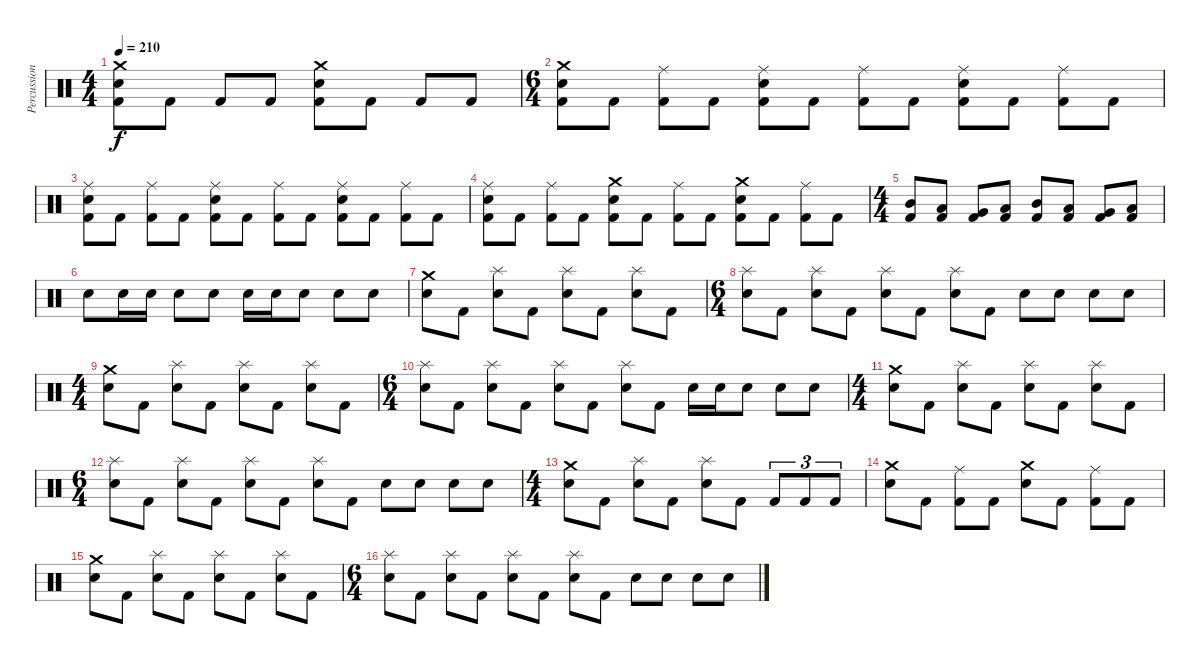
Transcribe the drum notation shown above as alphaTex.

\track ("Percussion" "Percussion") {instrument percussion}
\staff {score}
\articulation defaults
\ts (4 4)
\tempo 210
\clef neutral
\ks c
("Crash medium (hit)" "Electric Snare (hit)" "Kick (hit) 2").8{dy f} "Kick (hit) 2".8 "Kick (hit) 2".8 "Kick (hit) 2".8 ("Crash medium (hit)" "Electric Snare (hit)" "Kick (hit) 2").8 "Kick (hit) 2".8 "Kick (hit) 2".8 "Kick (hit) 2".8 |
\ts (6 4)
("Crash medium (hit)" "Electric Snare (hit)" "Kick (hit) 2").8 "Kick (hit) 2".8 ("Ride (middle)" "Kick (hit) 2").8 "Kick (hit) 2".8 ("Ride (middle)" "Electric Snare (hit)" "Kick (hit) 2").8 "Kick (hit) 2".8 ("Ride (middle)" "Kick (hit) 2").8 "Kick (hit) 2".8 ("Ride (middle)" "Electric Snare (hit)" "Kick (hit) 2").8 "Kick (hit) 2".8 ("Ride (middle)" "Kick (hit) 2").8 "Kick (hit) 2".8 |
("Ride (middle)" "Electric Snare (hit)" "Kick (hit) 2").8 "Kick (hit) 2".8 ("Ride (middle)" "Kick (hit) 2").8 "Kick (hit) 2".8 ("Ride (middle)" "Electric Snare (hit)" "Kick (hit) 2").8 "Kick (hit) 2".8 ("Ride (middle)" "Kick (hit) 2").8 "Kick (hit) 2".8 ("Ride (middle)" "Electric Snare (hit)" "Kick (hit) 2").8 "Kick (hit) 2".8 ("Ride (middle)" "Kick (hit) 2").8 "Kick (hit) 2".8 |
("Ride (middle)" "Electric Snare (hit)" "Kick (hit) 2").8 "Kick (hit) 2".8 ("Ride (middle)" "Kick (hit) 2").8 "Kick (hit) 2".8 ("Crash medium (hit)" "Electric Snare (hit)" "Kick (hit) 2").8 "Kick (hit) 2".8 ("Ride (middle)" "Kick (hit) 2").8 "Kick (hit) 2".8 ("Crash medium (hit)" "Electric Snare (hit)" "Kick (hit) 2").8 "Kick (hit) 2".8 ("Ride (middle)" "Kick (hit) 2").8 "Kick (hit) 2".8 |
\ts (4 4)
("Mid Tom (hit)" "Kick (hit) 2").8 ("Low Tom (hit)" "Kick (hit) 2").8 ("Very Low Tom (hit)" "Kick (hit) 2").8 ("Low Floor Tom (hit)" "Kick (hit) 2").8 ("Mid Tom (hit)" "Kick (hit) 2").8 ("Low Tom (hit)" "Kick (hit) 2").8 ("Very Low Tom (hit)" "Kick (hit) 2").8 ("Low Floor Tom (hit)" "Kick (hit) 2").8 |
"Electric Snare (hit)".8 "Electric Snare (hit)".16 "Electric Snare (hit)".16 "Electric Snare (hit)".8 "Electric Snare (hit)".8 "Electric Snare (hit)".16 "Electric Snare (hit)".16 "Electric Snare (hit)".8 "Electric Snare (hit)".8 "Electric Snare (hit)".8 |
("Crash medium (hit)" "Electric Snare (hit)").8 "Kick (hit) 2".8 ("Splash (hit)" "Electric Snare (hit)").8 "Kick (hit) 2".8 ("Splash (hit)" "Electric Snare (hit)").8 "Kick (hit) 2".8 ("Splash (hit)" "Electric Snare (hit)").8 "Kick (hit) 2".8 |
\ts (6 4)
("Splash (hit)" "Electric Snare (hit)").8 "Kick (hit) 2".8 ("Splash (hit)" "Electric Snare (hit)").8 "Kick (hit) 2".8 ("Splash (hit)" "Electric Snare (hit)").8 "Kick (hit) 2".8 ("Splash (hit)" "Electric Snare (hit)").8 "Kick (hit) 2".8 "Electric Snare (hit)".8 "Electric Snare (hit)".8 "Electric Snare (hit)".8 "Electric Snare (hit)".8 |
\ts (4 4)
("Crash medium (hit)" "Electric Snare (hit)").8 "Kick (hit) 2".8 ("Splash (hit)" "Electric Snare (hit)").8 "Kick (hit) 2".8 ("Splash (hit)" "Electric Snare (hit)").8 "Kick (hit) 2".8 ("Splash (hit)" "Electric Snare (hit)").8 "Kick (hit) 2".8 |
\ts (6 4)
("Splash (hit)" "Electric Snare (hit)").8 "Kick (hit) 2".8 ("Splash (hit)" "Electric Snare (hit)").8 "Kick (hit) 2".8 ("Splash (hit)" "Electric Snare (hit)").8 "Kick (hit) 2".8 ("Splash (hit)" "Electric Snare (hit)").8 "Kick (hit) 2".8 "Electric Snare (hit)".16 "Electric Snare (hit)".16 "Electric Snare (hit)".8 "Electric Snare (hit)".8 "Electric Snare (hit)".8 |
\ts (4 4)
("Crash medium (hit)" "Electric Snare (hit)").8 "Kick (hit) 2".8 ("Splash (hit)" "Electric Snare (hit)").8 "Kick (hit) 2".8 ("Splash (hit)" "Electric Snare (hit)").8 "Kick (hit) 2".8 ("Splash (hit)" "Electric Snare (hit)").8 "Kick (hit) 2".8 |
\ts (6 4)
("Splash (hit)" "Electric Snare (hit)").8 "Kick (hit) 2".8 ("Splash (hit)" "Electric Snare (hit)").8 "Kick (hit) 2".8 ("Splash (hit)" "Electric Snare (hit)").8 "Kick (hit) 2".8 ("Splash (hit)" "Electric Snare (hit)").8 "Kick (hit) 2".8 "Electric Snare (hit)".8 "Electric Snare (hit)".8 "Electric Snare (hit)".8 "Electric Snare (hit)".8 |
\ts (4 4)
("Crash medium (hit)" "Electric Snare (hit)").8 "Kick (hit) 2".8 ("Splash (hit)" "Electric Snare (hit)").8 "Kick (hit) 2".8 ("Splash (hit)" "Electric Snare (hit)").8 "Kick (hit) 2".8 "Kick (hit) 2".8{tu (3 2)} "Kick (hit) 2".8{tu (3 2)} "Kick (hit) 2".8{tu (3 2)} |
("Crash medium (hit)" "Electric Snare (hit)").8 "Kick (hit) 2".8 ("Ride (middle)" "Kick (hit) 2").8 "Kick (hit) 2".8 ("Crash medium (hit)" "Electric Snare (hit)").8 "Kick (hit) 2".8 ("Ride (middle)" "Kick (hit) 2").8 "Kick (hit) 2".8 |
("Crash medium (hit)" "Electric Snare (hit)").8 "Kick (hit) 2".8 ("Splash (hit)" "Electric Snare (hit)").8 "Kick (hit) 2".8 ("Splash (hit)" "Electric Snare (hit)").8 "Kick (hit) 2".8 ("Splash (hit)" "Electric Snare (hit)").8 "Kick (hit) 2".8 |
\ts (6 4)
("Splash (hit)" "Electric Snare (hit)").8 "Kick (hit) 2".8 ("Splash (hit)" "Electric Snare (hit)").8 "Kick (hit) 2".8 ("Splash (hit)" "Electric Snare (hit)").8 "Kick (hit) 2".8 ("Splash (hit)" "Electric Snare (hit)").8 "Kick (hit) 2".8 "Electric Snare (hit)".8 "Electric Snare (hit)".8 "Electric Snare (hit)".8 "Electric Snare (hit)".8
